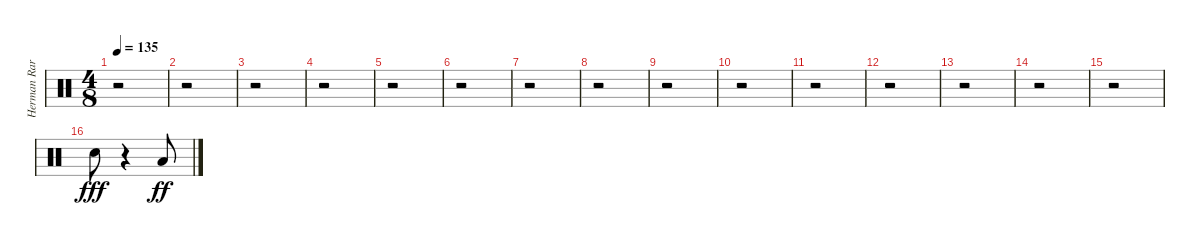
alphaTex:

\track ("Herman Rarebell" "Herman Rar") {instrument percussion}
\staff {score}
\articulation defaults
\ts (4 8)
\tempo 135
\clef neutral
\ks c
r.2{dy ff} |
r.2 |
r.2 |
r.2 |
r.2 |
r.2 |
r.2 |
r.2 |
r.2 |
r.2 |
r.2 |
r.2 |
r.2 |
r.2 |
r.2 |
"Snare (hit) 2".8{dy fff} r.4 "Low Floor Tom (hit)".8{dy ff}
